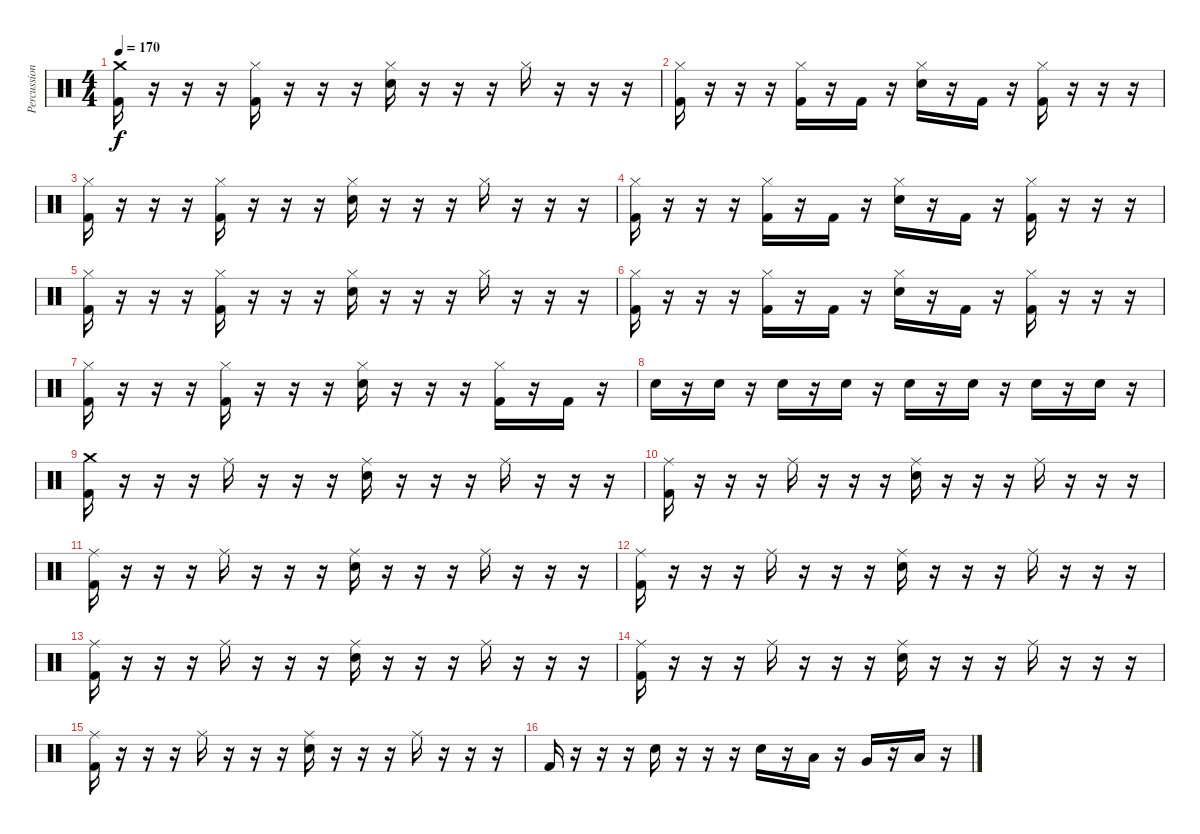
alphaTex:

\track ("Percussion" "Percussion") {instrument percussion}
\staff {score}
\articulation defaults
\ts (4 4)
\tempo 170
\clef neutral
\ks c
("Crash medium (hit)" "Kick (hit) 2").16{dy f} r.16 r.16 r.16 ("Hi-Hat (closed)" "Kick (hit) 2").16 r.16 r.16 r.16 ("Hi-Hat (closed)" "Snare (hit) 2").16 r.16 r.16 r.16 "Hi-Hat (closed)".16 r.16 r.16 r.16 |
("Hi-Hat (closed)" "Kick (hit) 2").16 r.16 r.16 r.16 ("Hi-Hat (closed)" "Kick (hit) 2").16 r.16 "Kick (hit) 2".16 r.16 ("Hi-Hat (closed)" "Snare (hit) 2").16 r.16 "Kick (hit) 2".16 r.16 ("Hi-Hat (closed)" "Kick (hit) 2").16 r.16 r.16 r.16 |
("Hi-Hat (closed)" "Kick (hit) 2").16 r.16 r.16 r.16 ("Hi-Hat (closed)" "Kick (hit) 2").16 r.16 r.16 r.16 ("Hi-Hat (closed)" "Snare (hit) 2").16 r.16 r.16 r.16 "Hi-Hat (closed)".16 r.16 r.16 r.16 |
("Hi-Hat (closed)" "Kick (hit) 2").16 r.16 r.16 r.16 ("Hi-Hat (closed)" "Kick (hit) 2").16 r.16 "Kick (hit) 2".16 r.16 ("Hi-Hat (closed)" "Snare (hit) 2").16 r.16 "Kick (hit) 2".16 r.16 ("Hi-Hat (closed)" "Kick (hit) 2").16 r.16 r.16 r.16 |
("Hi-Hat (closed)" "Kick (hit) 2").16 r.16 r.16 r.16 ("Hi-Hat (closed)" "Kick (hit) 2").16 r.16 r.16 r.16 ("Hi-Hat (closed)" "Snare (hit) 2").16 r.16 r.16 r.16 "Hi-Hat (closed)".16 r.16 r.16 r.16 |
("Hi-Hat (closed)" "Kick (hit) 2").16 r.16 r.16 r.16 ("Hi-Hat (closed)" "Kick (hit) 2").16 r.16 "Kick (hit) 2".16 r.16 ("Hi-Hat (closed)" "Snare (hit) 2").16 r.16 "Kick (hit) 2".16 r.16 ("Hi-Hat (closed)" "Kick (hit) 2").16 r.16 r.16 r.16 |
("Hi-Hat (closed)" "Kick (hit) 2").16 r.16 r.16 r.16 ("Hi-Hat (closed)" "Kick (hit) 2").16 r.16 r.16 r.16 ("Hi-Hat (closed)" "Snare (hit) 2").16 r.16 r.16 r.16 ("Hi-Hat (closed)" "Kick (hit) 2").16 r.16 "Kick (hit) 2".16 r.16 |
"Snare (hit) 2".16 r.16 "Snare (hit) 2".16 r.16 "Snare (hit) 2".16 r.16 "Snare (hit) 2".16 r.16 "Snare (hit) 2".16 r.16 "Snare (hit) 2".16 r.16 "Snare (hit) 2".16 r.16 "Snare (hit) 2".16 r.16 |
("Crash medium (hit)" "Kick (hit) 2").16 r.16 r.16 r.16 "Ride (middle)".16 r.16 r.16 r.16 ("Ride (middle)" "Snare (hit) 2").16 r.16 r.16 r.16 "Ride (middle)".16 r.16 r.16 r.16 |
("Ride (middle)" "Kick (hit) 2").16 r.16 r.16 r.16 "Ride (middle)".16 r.16 r.16 r.16 ("Ride (middle)" "Snare (hit) 2").16 r.16 r.16 r.16 "Ride (middle)".16 r.16 r.16 r.16 |
("Ride (middle)" "Kick (hit) 2").16 r.16 r.16 r.16 "Ride (middle)".16 r.16 r.16 r.16 ("Ride (middle)" "Snare (hit) 2").16 r.16 r.16 r.16 "Ride (middle)".16 r.16 r.16 r.16 |
("Ride (middle)" "Kick (hit) 2").16 r.16 r.16 r.16 "Ride (middle)".16 r.16 r.16 r.16 ("Ride (middle)" "Snare (hit) 2").16 r.16 r.16 r.16 "Ride (middle)".16 r.16 r.16 r.16 |
("Ride (middle)" "Kick (hit) 2").16 r.16 r.16 r.16 "Ride (middle)".16 r.16 r.16 r.16 ("Ride (middle)" "Snare (hit) 2").16 r.16 r.16 r.16 "Ride (middle)".16 r.16 r.16 r.16 |
("Ride (middle)" "Kick (hit) 2").16 r.16 r.16 r.16 "Ride (middle)".16 r.16 r.16 r.16 ("Ride (middle)" "Snare (hit) 2").16 r.16 r.16 r.16 "Ride (middle)".16 r.16 r.16 r.16 |
("Ride (middle)" "Kick (hit) 2").16 r.16 r.16 r.16 "Ride (middle)".16 r.16 r.16 r.16 ("Ride (middle)" "Snare (hit) 2").16 r.16 r.16 r.16 "Ride (middle)".16 r.16 r.16 r.16 |
"Kick (hit) 2".16 r.16 r.16 r.16 "Snare (hit) 2".16 r.16 r.16 r.16 "Snare (hit) 2".16 r.16 "Low Floor Tom (hit)".16 r.16 "Very Low Tom (hit)".16 r.16 "Low Tom (hit)".16 r.16
